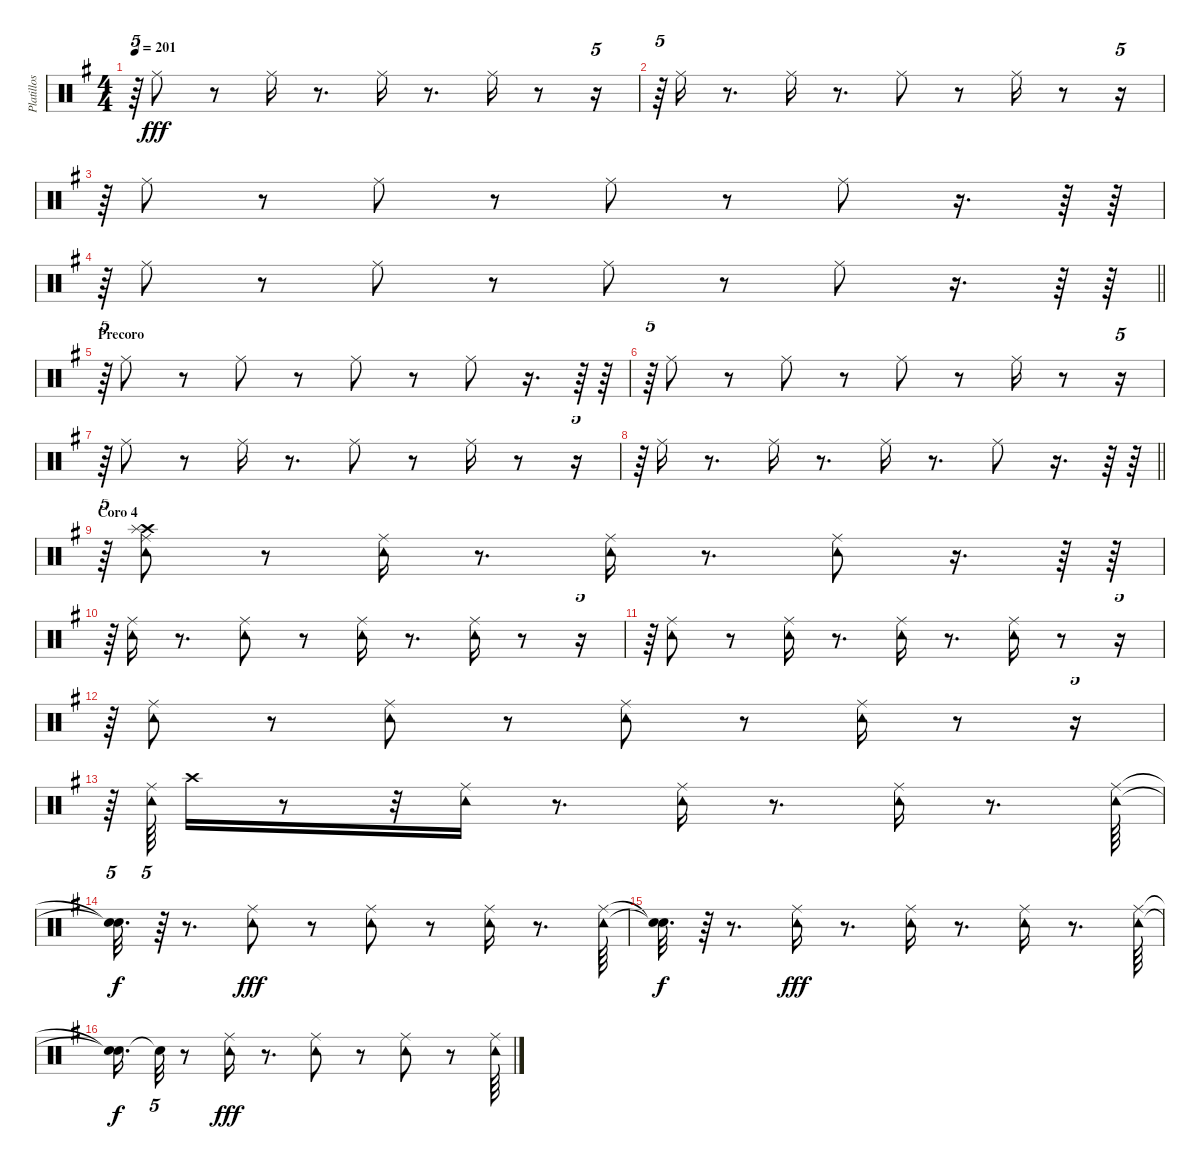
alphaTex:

\track ("Platillos y pandero" "Platillos ") {instrument percussion}
\staff {score}
\articulation defaults
\ts (4 4)
\tempo 201
\clef neutral
\ks g
r.64{tu (5 4) dy f} "Ride (middle)".8{dy fff} r.8 "Ride (middle)".16 r.8{d} "Ride (middle)".16 r.8{d} "Ride (middle)".16 r.8 r.16{tu (5 4)} |
r.64{tu (5 4)} "Ride (middle)".16 r.8{d} "Ride (middle)".16 r.8{d} "Ride (middle)".8 r.8 "Ride (middle)".16 r.8 r.16{tu (5 4)} |
r.64{tu (5 4)} "Ride (middle)".8 r.8 "Ride (middle)".8 r.8 "Ride (middle)".8 r.8 "Ride (middle)".8 r.16{d} r.64 r.64 |
\barLineRight lightlight
r.64{tu (5 4)} "Ride (middle)".8 r.8 "Ride (middle)".8 r.8 "Ride (middle)".8 r.8 "Ride (middle)".8 r.16{d} r.64 r.64 |
\section ("" "Precoro")
r.64{tu (5 4)} "Ride (middle)".8 r.8 "Ride (middle)".8 r.8 "Ride (middle)".8 r.8 "Ride (middle)".8 r.16{d} r.64 r.64 |
r.64{tu (5 4)} "Ride (middle)".8 r.8 "Ride (middle)".8 r.8 "Ride (middle)".8 r.8 "Ride (middle)".16 r.8 r.16{tu (5 4)} |
r.64{tu (5 4)} "Ride (middle)".8 r.8 "Ride (middle)".16 r.8{d} "Ride (middle)".8 r.8 "Ride (middle)".16 r.8 r.16{tu (5 4)} |
\barLineRight lightlight
r.64{tu (5 4)} "Ride (middle)".16 r.8{d} "Ride (middle)".16 r.8{d} "Ride (middle)".16 r.8{d} "Ride (middle)".8 r.16{d} r.64 r.64 |
\section ("" "Coro 4")
r.64{tu (5 4)} ("Crash high (hit)" "Splash (hit)" "Ride (middle)" "Tambourine (hit)").8 r.8 ("Tambourine (hit)" "Ride (middle)").16 r.8{d} ("Tambourine (hit)" "Ride (middle)").16 r.8{d} ("Tambourine (hit)" "Ride (middle)").8 r.16{d} r.64 r.64 |
r.64{tu (5 4)} ("Tambourine (hit)" "Ride (middle)").16 r.8{d} ("Tambourine (hit)" "Ride (middle)").8 r.8 ("Ride (middle)" "Tambourine (hit)").16 r.8{d} ("Tambourine (hit)" "Ride (middle)").16 r.8 r.16{tu (5 4)} |
r.64{tu (5 4)} ("Ride (middle)" "Tambourine (hit)").8 r.8 ("Ride (middle)" "Tambourine (hit)").16 r.8{d} ("Ride (middle)" "Tambourine (hit)").16 r.8{d} ("Ride (middle)" "Tambourine (hit)").16 r.8 r.16{tu (5 4)} |
r.64{tu (5 4)} ("Tambourine (hit)" "Ride (middle)").8 r.8 ("Tambourine (hit)" "Ride (middle)").8 r.8 ("Tambourine (hit)" "Ride (middle)").8 r.8 ("Ride (middle)" "Tambourine (hit)").16 r.8 r.16{tu (5 4)} |
r.64{tu (5 4)} ("Tambourine (hit)" "Ride (middle)").64{tu (5 4)} "Crash high (hit)".16 r.8 r.32 ("Tambourine (hit)" "Ride (middle)").16 r.8{d} ("Ride (middle)" "Tambourine (hit)").16 r.8{d} ("Tambourine (hit)" "Ride (middle)").16 r.8{d} ("Ride (middle)" "Tambourine (hit)").64 |
("Snare (hit)"{t} "Snare (hit)"{t}).32{d dy f} r.64 r.8{d} ("Ride (middle)" "Tambourine (hit)").8{dy fff} r.8 ("Ride (middle)" "Tambourine (hit)").8 r.8 ("Ride (middle)" "Tambourine (hit)").16 r.8{d} ("Ride (middle)" "Tambourine (hit)").64 |
("Snare (hit)"{t} "Snare (hit)"{t}).32{d dy f} r.64 r.8{d} ("Tambourine (hit)" "Ride (middle)").16{dy fff} r.8{d} ("Tambourine (hit)" "Ride (middle)").16 r.8{d} ("Ride (middle)" "Tambourine (hit)").16 r.8{d} ("Ride (middle)" "Tambourine (hit)").64 |
("Snare (hit)"{t} "Snare (hit)"{t}).16{d dy f} "Snare (hit)"{t}.32{tu (5 4)} r.8 ("Ride (middle)" "Tambourine (hit)").16{dy fff} r.8{d} ("Ride (middle)" "Tambourine (hit)").8 r.8 ("Tambourine (hit)" "Ride (middle)").8 r.8 ("Tambourine (hit)" "Ride (middle)").64
